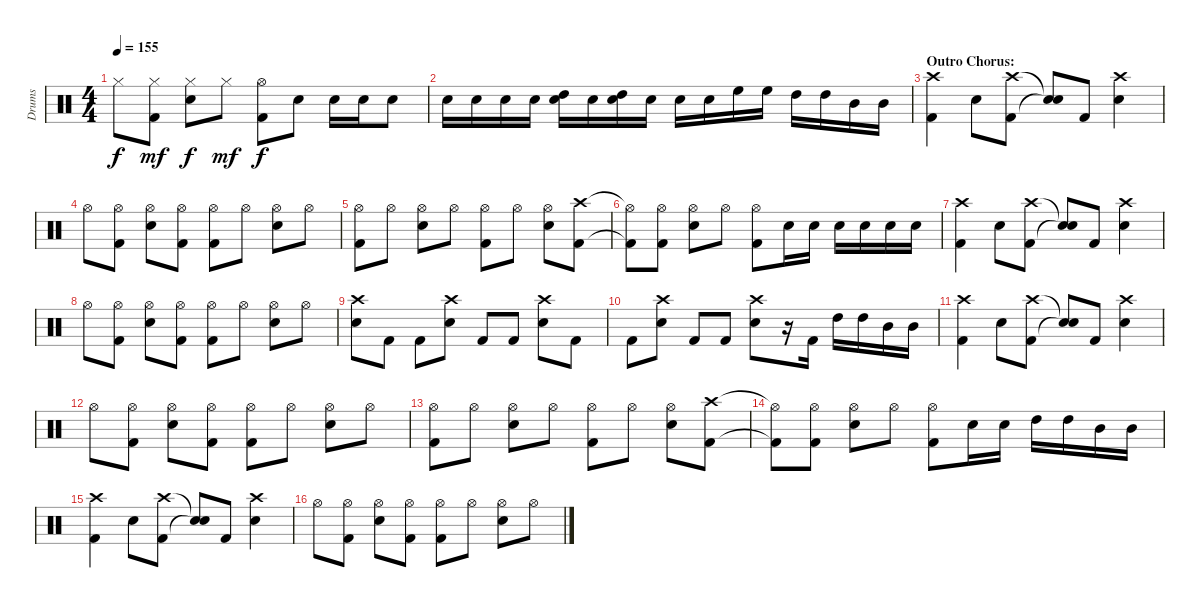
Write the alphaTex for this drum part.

\track ("Drums" "Drums") {instrument percussion}
\staff {score}
\articulation defaults
\ts (4 4)
\tempo 155
\clef neutral
\ks c "Hi-Hat (closed)".8{dy f}
("Hi-Hat (closed)" "Kick (hit) 2").8{dy mf} ("Hi-Hat (closed)" "Electric Snare (hit)").8{dy f} "Hi-Hat (closed)".8{dy mf} ("Hi-Hat (open)" "Kick (hit) 2").8{dy f} "Electric Snare (hit)".8 "Electric Snare (hit)".16 "Electric Snare (hit)".16 "Electric Snare (hit)".8 |
"Electric Snare (hit)".16 "Electric Snare (hit)".16 "Electric Snare (hit)".16 "Electric Snare (hit)".16 ("Electric Snare (hit)" "High Tom (hit)").16 "Electric Snare (hit)".16 ("Electric Snare (hit)" "High Tom (hit)").16 "Electric Snare (hit)".16 "Electric Snare (hit)".16 "Electric Snare (hit)".16 "High Floor Tom (hit)".16 "High Floor Tom (hit)".16 "High Tom (hit)".16 "High Tom (hit)".16 "Mid Tom (hit)".16 "Mid Tom (hit)".16 |
\section ("" "Outro Chorus:")
("Crash high (hit)" "Kick (hit) 2").4 "Electric Snare (hit)".8 ("Crash high (hit)" "Kick (hit) 2").8 ("Snare (hit)"{t} "Snare (hit)"{t}).8 "Kick (hit) 2".8 ("Crash high (hit)" "Electric Snare (hit)").4 |
"Hi-Hat (open)".8 ("Hi-Hat (open)" "Kick (hit) 2").8 ("Hi-Hat (open)" "Electric Snare (hit)").8 ("Hi-Hat (open)" "Kick (hit) 2").8 ("Hi-Hat (open)" "Kick (hit) 2").8 "Hi-Hat (open)".8 ("Hi-Hat (open)" "Electric Snare (hit)").8 "Hi-Hat (open)".8 |
("Hi-Hat (open)" "Kick (hit) 2").8 "Hi-Hat (open)".8 ("Hi-Hat (open)" "Electric Snare (hit)").8 "Hi-Hat (open)".8 ("Hi-Hat (open)" "Kick (hit) 2").8 "Hi-Hat (open)".8 ("Hi-Hat (open)" "Electric Snare (hit)").8 ("Crash high (hit)" "Kick (hit) 2").8 |
("Hi-Hat (open)"{t} "Kick (hit) 2"{t}).8 ("Hi-Hat (open)" "Kick (hit) 2").8 ("Hi-Hat (open)" "Electric Snare (hit)").8 "Hi-Hat (open)".8 ("Hi-Hat (open)" "Kick (hit) 2").8 "Electric Snare (hit)".16 "Electric Snare (hit)".16 "Electric Snare (hit)".16 "Electric Snare (hit)".16 "Electric Snare (hit)".16 "Electric Snare (hit)".16 |
("Crash high (hit)" "Kick (hit) 2").4 "Electric Snare (hit)".8 ("Crash high (hit)" "Kick (hit) 2").8 ("Snare (hit)"{t} "Snare (hit)"{t}).8 "Kick (hit) 2".8 ("Crash high (hit)" "Electric Snare (hit)").4 |
"Hi-Hat (open)".8 ("Hi-Hat (open)" "Kick (hit) 2").8 ("Hi-Hat (open)" "Electric Snare (hit)").8 ("Hi-Hat (open)" "Kick (hit) 2").8 ("Hi-Hat (open)" "Kick (hit) 2").8 "Hi-Hat (open)".8 ("Hi-Hat (open)" "Electric Snare (hit)").8 "Hi-Hat (open)".8 |
("Crash high (hit)" "Electric Snare (hit)").8 "Kick (hit) 2".8 "Kick (hit) 2".8 ("Crash high (hit)" "Electric Snare (hit)").8 "Kick (hit) 2".8 "Kick (hit) 2".8 ("Crash high (hit)" "Electric Snare (hit)").8 "Kick (hit) 2".8 |
"Kick (hit) 2".8 ("Crash high (hit)" "Electric Snare (hit)").8 "Kick (hit) 2".8 "Kick (hit) 2".8 ("Crash high (hit)" "Electric Snare (hit)").8 r.16 "Kick (hit) 2".16 "High Tom (hit)".16 "High Tom (hit)".16 "Mid Tom (hit)".16 "Mid Tom (hit)".16 |
("Crash high (hit)" "Kick (hit) 2").4 "Electric Snare (hit)".8 ("Crash high (hit)" "Kick (hit) 2").8 ("Snare (hit)"{t} "Snare (hit)"{t}).8 "Kick (hit) 2".8 ("Crash high (hit)" "Electric Snare (hit)").4 |
"Hi-Hat (open)".8 ("Hi-Hat (open)" "Kick (hit) 2").8 ("Hi-Hat (open)" "Electric Snare (hit)").8 ("Hi-Hat (open)" "Kick (hit) 2").8 ("Hi-Hat (open)" "Kick (hit) 2").8 "Hi-Hat (open)".8 ("Hi-Hat (open)" "Electric Snare (hit)").8 "Hi-Hat (open)".8 |
("Hi-Hat (open)" "Kick (hit) 2").8 "Hi-Hat (open)".8 ("Hi-Hat (open)" "Electric Snare (hit)").8 "Hi-Hat (open)".8 ("Hi-Hat (open)" "Kick (hit) 2").8 "Hi-Hat (open)".8 ("Hi-Hat (open)" "Electric Snare (hit)").8 ("Crash high (hit)" "Kick (hit) 2").8 |
("Hi-Hat (open)"{t} "Kick (hit) 2"{t}).8 ("Hi-Hat (open)" "Kick (hit) 2").8 ("Hi-Hat (open)" "Electric Snare (hit)").8 "Hi-Hat (open)".8 ("Hi-Hat (open)" "Kick (hit) 2").8 "Electric Snare (hit)".16 "Electric Snare (hit)".16 "High Tom (hit)".16 "High Tom (hit)".16 "Mid Tom (hit)".16 "Mid Tom (hit)".16 |
("Crash high (hit)" "Kick (hit) 2").4 "Electric Snare (hit)".8 ("Crash high (hit)" "Kick (hit) 2").8 ("Snare (hit)"{t} "Snare (hit)"{t}).8 "Kick (hit) 2".8 ("Crash high (hit)" "Electric Snare (hit)").4 |
"Hi-Hat (open)".8 ("Hi-Hat (open)" "Kick (hit) 2").8 ("Hi-Hat (open)" "Electric Snare (hit)").8 ("Hi-Hat (open)" "Kick (hit) 2").8 ("Hi-Hat (open)" "Kick (hit) 2").8 "Hi-Hat (open)".8 ("Hi-Hat (open)" "Electric Snare (hit)").8 "Hi-Hat (open)".8
